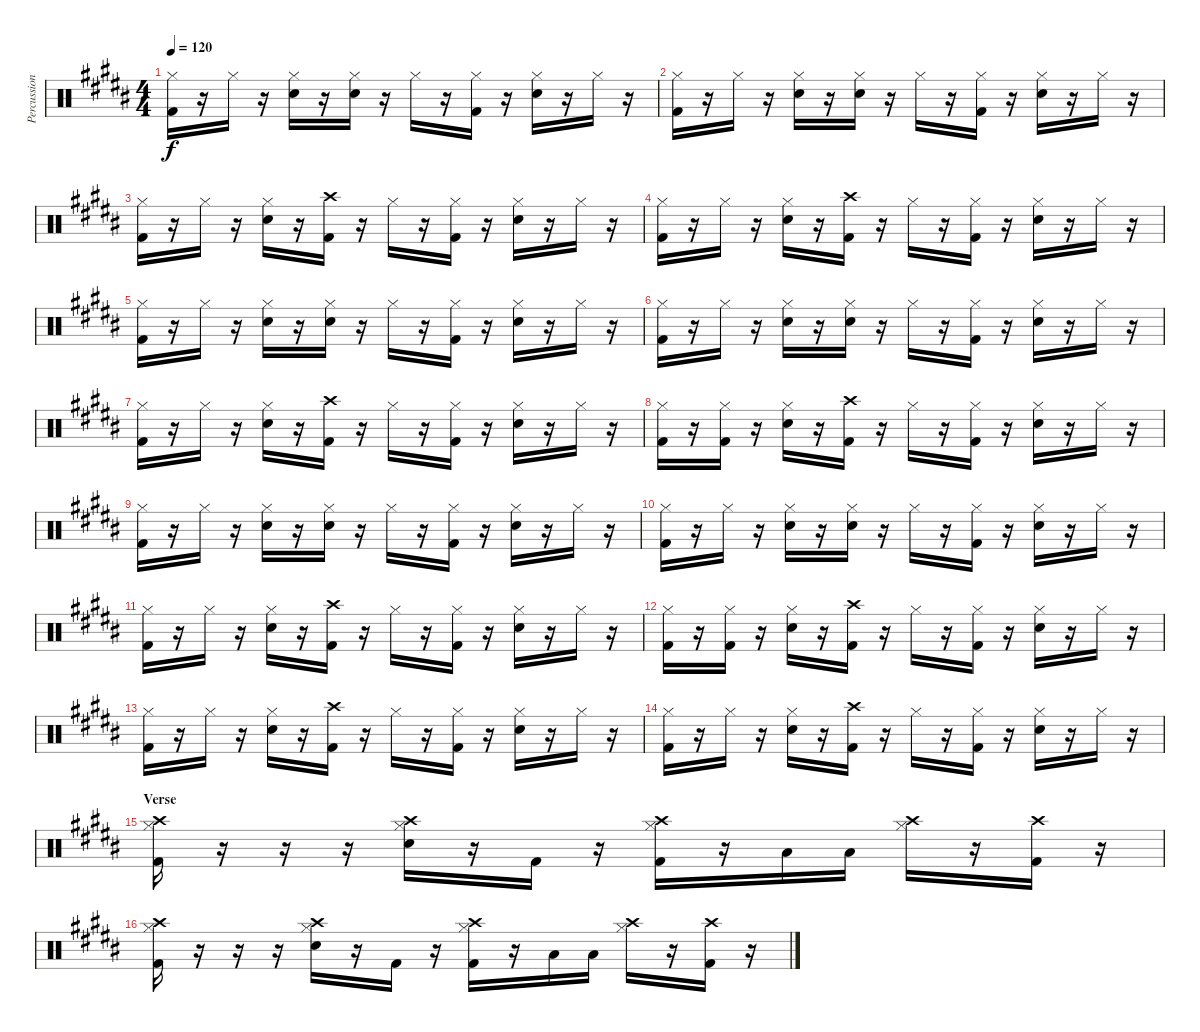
\track ("Percussion" "Percussion") {instrument percussion}
\staff {score}
\articulation defaults
\ts (4 4)
\tempo 120
\clef neutral
\ks b
("Hi-Hat (closed)" "Kick (hit) 2").16{dy f} r.16 "Hi-Hat (closed)".16 r.16 ("Hi-Hat (closed)" "Electric Snare (hit)").16 r.16 ("Hi-Hat (closed)" "Electric Snare (hit)").16 r.16 "Hi-Hat (closed)".16 r.16 ("Hi-Hat (closed)" "Kick (hit) 2").16 r.16 ("Hi-Hat (closed)" "Electric Snare (hit)").16 r.16 "Hi-Hat (closed)".16 r.16 |
("Hi-Hat (closed)" "Kick (hit) 2").16 r.16 "Hi-Hat (closed)".16 r.16 ("Hi-Hat (closed)" "Electric Snare (hit)").16 r.16 ("Hi-Hat (closed)" "Electric Snare (hit)").16 r.16 "Hi-Hat (closed)".16 r.16 ("Hi-Hat (closed)" "Kick (hit) 2").16 r.16 ("Hi-Hat (closed)" "Electric Snare (hit)").16 r.16 "Hi-Hat (closed)".16 r.16 |
("Hi-Hat (closed)" "Kick (hit) 2").16 r.16 "Hi-Hat (closed)".16 r.16 ("Hi-Hat (closed)" "Electric Snare (hit)").16 r.16 ("Crash high (hit)" "Kick (hit) 2").16 r.16 "Hi-Hat (closed)".16 r.16 ("Hi-Hat (closed)" "Kick (hit) 2").16 r.16 ("Hi-Hat (closed)" "Electric Snare (hit)").16 r.16 "Hi-Hat (closed)".16 r.16 |
("Hi-Hat (closed)" "Kick (hit) 2").16 r.16 "Hi-Hat (closed)".16 r.16 ("Hi-Hat (closed)" "Electric Snare (hit)").16 r.16 ("Crash high (hit)" "Kick (hit) 2").16 r.16 "Hi-Hat (closed)".16 r.16 ("Hi-Hat (closed)" "Kick (hit) 2").16 r.16 ("Hi-Hat (closed)" "Electric Snare (hit)").16 r.16 "Hi-Hat (closed)".16 r.16 |
("Hi-Hat (closed)" "Kick (hit) 2").16 r.16 "Hi-Hat (closed)".16 r.16 ("Hi-Hat (closed)" "Electric Snare (hit)").16 r.16 ("Hi-Hat (closed)" "Electric Snare (hit)").16 r.16 "Hi-Hat (closed)".16 r.16 ("Hi-Hat (closed)" "Kick (hit) 2").16 r.16 ("Hi-Hat (closed)" "Electric Snare (hit)").16 r.16 "Hi-Hat (closed)".16 r.16 |
("Hi-Hat (closed)" "Kick (hit) 2").16 r.16 "Hi-Hat (closed)".16 r.16 ("Hi-Hat (closed)" "Electric Snare (hit)").16 r.16 ("Hi-Hat (closed)" "Electric Snare (hit)").16 r.16 "Hi-Hat (closed)".16 r.16 ("Hi-Hat (closed)" "Kick (hit) 2").16 r.16 ("Hi-Hat (closed)" "Electric Snare (hit)").16 r.16 "Hi-Hat (closed)".16 r.16 |
("Hi-Hat (closed)" "Kick (hit) 2").16 r.16 "Hi-Hat (closed)".16 r.16 ("Hi-Hat (closed)" "Electric Snare (hit)").16 r.16 ("Crash high (hit)" "Kick (hit) 2").16 r.16 "Hi-Hat (closed)".16 r.16 ("Hi-Hat (closed)" "Kick (hit) 2").16 r.16 ("Hi-Hat (closed)" "Electric Snare (hit)").16 r.16 "Hi-Hat (closed)".16 r.16 |
("Hi-Hat (closed)" "Kick (hit) 2").16 r.16 ("Hi-Hat (closed)" "Kick (hit) 2").16 r.16 ("Hi-Hat (closed)" "Electric Snare (hit)").16 r.16 ("Crash high (hit)" "Kick (hit) 2").16 r.16 "Hi-Hat (closed)".16 r.16 ("Hi-Hat (closed)" "Kick (hit) 2").16 r.16 ("Hi-Hat (closed)" "Electric Snare (hit)").16 r.16 "Hi-Hat (closed)".16 r.16 |
("Hi-Hat (closed)" "Kick (hit) 2").16 r.16 "Hi-Hat (closed)".16 r.16 ("Hi-Hat (closed)" "Electric Snare (hit)").16 r.16 ("Hi-Hat (closed)" "Electric Snare (hit)").16 r.16 "Hi-Hat (closed)".16 r.16 ("Hi-Hat (closed)" "Kick (hit) 2").16 r.16 ("Hi-Hat (closed)" "Electric Snare (hit)").16 r.16 "Hi-Hat (closed)".16 r.16 |
("Hi-Hat (closed)" "Kick (hit) 2").16 r.16 "Hi-Hat (closed)".16 r.16 ("Hi-Hat (closed)" "Electric Snare (hit)").16 r.16 ("Hi-Hat (closed)" "Electric Snare (hit)").16 r.16 "Hi-Hat (closed)".16 r.16 ("Hi-Hat (closed)" "Kick (hit) 2").16 r.16 ("Hi-Hat (closed)" "Electric Snare (hit)").16 r.16 "Hi-Hat (closed)".16 r.16 |
("Hi-Hat (closed)" "Kick (hit) 2").16 r.16 "Hi-Hat (closed)".16 r.16 ("Hi-Hat (closed)" "Electric Snare (hit)").16 r.16 ("Crash high (hit)" "Kick (hit) 2").16 r.16 "Hi-Hat (closed)".16 r.16 ("Hi-Hat (closed)" "Kick (hit) 2").16 r.16 ("Hi-Hat (closed)" "Electric Snare (hit)").16 r.16 "Hi-Hat (closed)".16 r.16 |
("Hi-Hat (closed)" "Kick (hit) 2").16 r.16 ("Hi-Hat (closed)" "Kick (hit) 2").16 r.16 ("Hi-Hat (closed)" "Electric Snare (hit)").16 r.16 ("Crash high (hit)" "Kick (hit) 2").16 r.16 "Hi-Hat (closed)".16 r.16 ("Hi-Hat (closed)" "Kick (hit) 2").16 r.16 ("Hi-Hat (closed)" "Electric Snare (hit)").16 r.16 "Hi-Hat (closed)".16 r.16 |
("Hi-Hat (closed)" "Kick (hit) 2").16 r.16 "Hi-Hat (closed)".16 r.16 ("Hi-Hat (closed)" "Electric Snare (hit)").16 r.16 ("Crash high (hit)" "Kick (hit) 2").16 r.16 "Hi-Hat (closed)".16 r.16 ("Hi-Hat (closed)" "Kick (hit) 2").16 r.16 ("Hi-Hat (closed)" "Electric Snare (hit)").16 r.16 "Hi-Hat (closed)".16 r.16 |
("Hi-Hat (closed)" "Kick (hit) 2").16 r.16 "Hi-Hat (closed)".16 r.16 ("Hi-Hat (closed)" "Electric Snare (hit)").16 r.16 ("Crash high (hit)" "Kick (hit) 2").16 r.16 "Hi-Hat (closed)".16 r.16 ("Hi-Hat (closed)" "Kick (hit) 2").16 r.16 ("Hi-Hat (closed)" "Electric Snare (hit)").16 r.16 "Hi-Hat (closed)".16 r.16 |
\section ("" "Verse")
("Crash high (hit)" "Hi-Hat (closed)" "Kick (hit) 2").16 r.16 r.16 r.16 ("Crash high (hit)" "Hi-Hat (closed)" "Electric Snare (hit)").16 r.16 "Kick (hit) 2".16 r.16 ("Crash high (hit)" "Hi-Hat (closed)" "Kick (hit) 2").16 r.16 "Low Tom (hit)".16 "Low Tom (hit)".16 ("Crash high (hit)" "Hi-Hat (closed)").16 r.16 ("Crash high (hit)" "Kick (hit) 2").16 r.16 |
("Crash high (hit)" "Hi-Hat (closed)" "Kick (hit) 2").16 r.16 r.16 r.16 ("Crash high (hit)" "Hi-Hat (closed)" "Electric Snare (hit)").16 r.16 "Kick (hit) 2".16 r.16 ("Crash high (hit)" "Hi-Hat (closed)" "Kick (hit) 2").16 r.16 "Low Tom (hit)".16 "Low Tom (hit)".16 ("Crash high (hit)" "Hi-Hat (closed)").16 r.16 ("Crash high (hit)" "Kick (hit) 2").16 r.16
